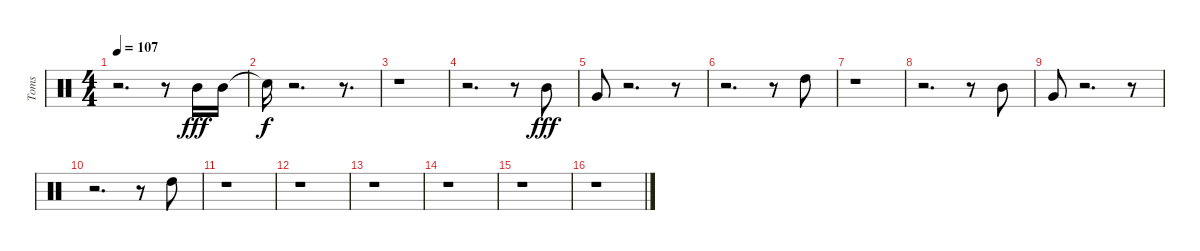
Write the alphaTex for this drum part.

\track ("Toms" "Toms") {instrument percussion}
\staff {score}
\articulation defaults
\ts (4 4)
\tempo 107
\clef neutral
\ks c
r.2{d dy fff} r.8 "Mid Tom (hit)".16 "Mid Tom (hit)".16 |
"Snare (hit)"{t}.16{dy f} r.2{d} r.8{d} |
r.1 |
r.2{d} r.8 "Mid Tom (hit)".8{dy fff} |
"Very Low Tom (hit)".8 r.2{d} r.8 |
r.2{d} r.8 "High Tom (hit)".8 |
r.1 |
r.2{d} r.8 "Mid Tom (hit)".8 |
"Very Low Tom (hit)".8 r.2{d} r.8 |
r.2{d} r.8 "High Tom (hit)".8 |
r.1 |
r.1 |
r.1 |
r.1 |
r.1 |
r.1
